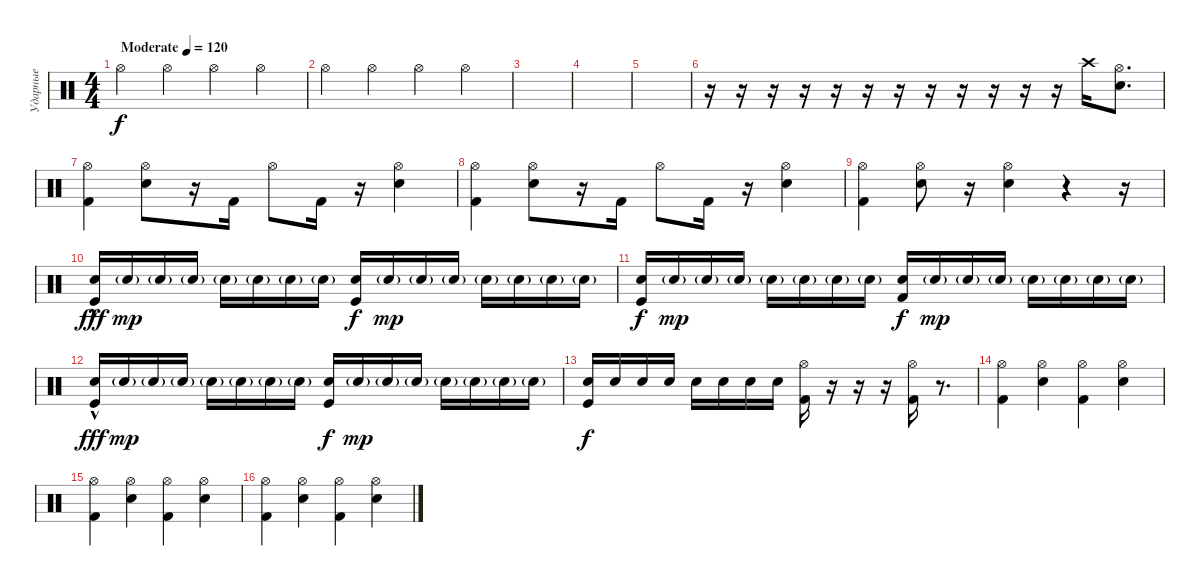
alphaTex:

\track ("Ударные" "Ударные") {instrument percussion}
\staff {score}
\articulation defaults
\ts (4 4)
\tempo (120 "Moderate")
\clef neutral
\ks c "Hi-Hat (open)".4{dy f} "Hi-Hat (open)".4 "Hi-Hat (open)".4 "Hi-Hat (open)".4
|
"Hi-Hat (open)".4 "Hi-Hat (open)".4 "Hi-Hat (open)".4 "Hi-Hat (open)".4 |
|
|
|
r.16 r.16 r.16 r.16 r.16 r.16 r.16 r.16 r.16 r.16 r.16 r.16 "Crash high (hit)".16 ("Hi-Hat (open)" "Electric Snare (hit)").8{d} |
("Kick (hit) 2" "Hi-Hat (open)").4 ("Electric Snare (hit)" "Hi-Hat (open)").8 r.16 "Kick (hit) 2".16 "Hi-Hat (open)".8 "Kick (hit) 2".16 r.16 ("Electric Snare (hit)" "Hi-Hat (open)").4 |
("Kick (hit) 2" "Hi-Hat (open)").4 ("Electric Snare (hit)" "Hi-Hat (open)").8 r.16 "Kick (hit) 2".16 "Hi-Hat (open)".8 "Kick (hit) 2".16 r.16 ("Electric Snare (hit)" "Hi-Hat (open)").4 |
("Kick (hit) 2" "Hi-Hat (open)").4 ("Electric Snare (hit)" "Hi-Hat (open)").8 r.16 ("Electric Snare (hit)" "Hi-Hat (open)").4 r.4 r.16 |
("Electric Snare (hit)"{hac} "Kick (hit)").16{dy fff} "Electric Snare (hit)"{g}.16{dy mp} "Electric Snare (hit)"{g}.16 "Electric Snare (hit)"{g}.16 "Electric Snare (hit)"{g}.16 "Electric Snare (hit)"{g}.16 "Electric Snare (hit)"{g}.16 "Electric Snare (hit)"{g}.16 ("Electric Snare (hit)" "Kick (hit)").16{dy f} "Electric Snare (hit)"{g}.16{dy mp} "Electric Snare (hit)"{g}.16 "Electric Snare (hit)"{g}.16 "Electric Snare (hit)"{g}.16 "Electric Snare (hit)"{g}.16 "Electric Snare (hit)"{g}.16 "Electric Snare (hit)"{g}.16 |
("Electric Snare (hit)" "Kick (hit)").16{dy f} "Electric Snare (hit)"{g}.16{dy mp} "Electric Snare (hit)"{g}.16 "Electric Snare (hit)"{g}.16 "Electric Snare (hit)"{g}.16 "Electric Snare (hit)"{g}.16 "Electric Snare (hit)"{g}.16 "Electric Snare (hit)"{g}.16 ("Electric Snare (hit)" "Kick (hit) 2").16{dy f} "Electric Snare (hit)"{g}.16{dy mp} "Electric Snare (hit)"{g}.16 "Electric Snare (hit)"{g}.16 "Electric Snare (hit)"{g}.16 "Electric Snare (hit)"{g}.16 "Electric Snare (hit)"{g}.16 "Electric Snare (hit)"{g}.16 |
("Electric Snare (hit)"{hac} "Kick (hit)").16{dy fff} "Electric Snare (hit)"{g}.16{dy mp} "Electric Snare (hit)"{g}.16 "Electric Snare (hit)"{g}.16 "Electric Snare (hit)"{g}.16 "Electric Snare (hit)"{g}.16 "Electric Snare (hit)"{g}.16 "Electric Snare (hit)"{g}.16 ("Electric Snare (hit)" "Kick (hit)").16{dy f} "Electric Snare (hit)"{g}.16{dy mp} "Electric Snare (hit)"{g}.16 "Electric Snare (hit)"{g}.16 "Electric Snare (hit)"{g}.16 "Electric Snare (hit)"{g}.16 "Electric Snare (hit)"{g}.16 "Electric Snare (hit)"{g}.16 |
("Electric Snare (hit)" "Kick (hit)").16{dy f} "Snare (hit) 2".16 "Snare (hit) 2".16 "Snare (hit) 2".16 "Snare (hit) 2".16 "Snare (hit) 2".16 "Snare (hit) 2".16 "Snare (hit) 2".16 ("Hi-Hat (open)" "Kick (hit) 2").16 r.16 r.16 r.16 ("Hi-Hat (open)" "Kick (hit) 2").16 r.8{d} |
("Kick (hit) 2" "Hi-Hat (open)").4 ("Electric Snare (hit)" "Hi-Hat (open)").4 ("Kick (hit) 2" "Hi-Hat (open)").4 ("Electric Snare (hit)" "Hi-Hat (open)").4 |
("Kick (hit) 2" "Hi-Hat (open)").4 ("Electric Snare (hit)" "Hi-Hat (open)").4 ("Kick (hit) 2" "Hi-Hat (open)").4 ("Electric Snare (hit)" "Hi-Hat (open)").4 |
("Kick (hit) 2" "Hi-Hat (open)").4 ("Electric Snare (hit)" "Hi-Hat (open)").4 ("Kick (hit) 2" "Hi-Hat (open)").4 ("Electric Snare (hit)" "Hi-Hat (open)").4
